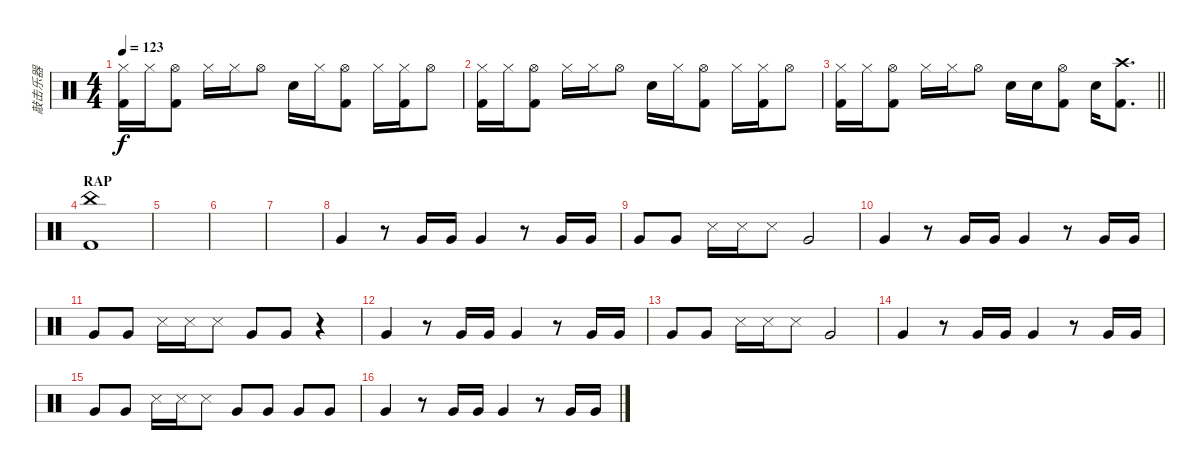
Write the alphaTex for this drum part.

\track ("敲击乐器" "敲击乐器") {instrument percussion}
\staff {score}
\articulation defaults
\ts (4 4)
\tempo 123
\clef neutral
\ks c
("Hi-Hat (closed)" "Kick (hit) 2").16{dy f} "Hi-Hat (closed)".16 ("Hi-Hat (open)" "Kick (hit) 2").8 "Hi-Hat (closed)".16 "Hi-Hat (closed)".16 "Hi-Hat (open)".8 "Electric Snare (hit)".16 "Hi-Hat (closed)".16 ("Hi-Hat (open)" "Kick (hit) 2").8 "Hi-Hat (closed)".16 ("Hi-Hat (closed)" "Kick (hit) 2").16 "Hi-Hat (open)".8 |
("Hi-Hat (closed)" "Kick (hit) 2").16 "Hi-Hat (closed)".16 ("Hi-Hat (open)" "Kick (hit) 2").8 "Hi-Hat (closed)".16 "Hi-Hat (closed)".16 "Hi-Hat (open)".8 "Electric Snare (hit)".16 "Hi-Hat (closed)".16 ("Hi-Hat (open)" "Kick (hit) 2").8 "Hi-Hat (closed)".16 ("Hi-Hat (closed)" "Kick (hit) 2").16 "Hi-Hat (open)".8 |
\barLineRight lightlight
("Hi-Hat (closed)" "Kick (hit) 2").16 "Hi-Hat (closed)".16 ("Hi-Hat (open)" "Kick (hit) 2").8 "Hi-Hat (closed)".16 "Hi-Hat (closed)".16 "Hi-Hat (open)".8 "Electric Snare (hit)".16 "Electric Snare (hit)".16 ("Hi-Hat (open)" "Kick (hit) 2").8 "Electric Snare (hit)".16 ("Crash high (hit)" "Kick (hit) 2").8{d} |
\section ("" "RAP")
("China (hit)" "Kick (hit) 2").1 |
|
|
|
"Very Low Tom (hit)".4 r.8 "Very Low Tom (hit)".16 "Very Low Tom (hit)".16 "Very Low Tom (hit)".4 r.8 "Very Low Tom (hit)".16 "Very Low Tom (hit)".16 |
"Very Low Tom (hit)".8 "Very Low Tom (hit)".8 "Snare (side stick) 3".16 "Snare (side stick) 3".16 "Snare (side stick) 3".8 "Very Low Tom (hit)".2 |
"Very Low Tom (hit)".4 r.8 "Very Low Tom (hit)".16 "Very Low Tom (hit)".16 "Very Low Tom (hit)".4 r.8 "Very Low Tom (hit)".16 "Very Low Tom (hit)".16 |
"Very Low Tom (hit)".8 "Very Low Tom (hit)".8 "Snare (side stick) 3".16 "Snare (side stick) 3".16 "Snare (side stick) 3".8 "Very Low Tom (hit)".8 "Very Low Tom (hit)".8 r.4 |
"Very Low Tom (hit)".4 r.8 "Very Low Tom (hit)".16 "Very Low Tom (hit)".16 "Very Low Tom (hit)".4 r.8 "Very Low Tom (hit)".16 "Very Low Tom (hit)".16 |
"Very Low Tom (hit)".8 "Very Low Tom (hit)".8 "Snare (side stick) 3".16 "Snare (side stick) 3".16 "Snare (side stick) 3".8 "Very Low Tom (hit)".2 |
"Very Low Tom (hit)".4 r.8 "Very Low Tom (hit)".16 "Very Low Tom (hit)".16 "Very Low Tom (hit)".4 r.8 "Very Low Tom (hit)".16 "Very Low Tom (hit)".16 |
"Very Low Tom (hit)".8 "Very Low Tom (hit)".8 "Snare (side stick) 3".16 "Snare (side stick) 3".16 "Snare (side stick) 3".8 "Very Low Tom (hit)".8 "Very Low Tom (hit)".8 "Very Low Tom (hit)".8 "Very Low Tom (hit)".8 |
"Very Low Tom (hit)".4 r.8 "Very Low Tom (hit)".16 "Very Low Tom (hit)".16 "Very Low Tom (hit)".4 r.8 "Very Low Tom (hit)".16 "Very Low Tom (hit)".16
